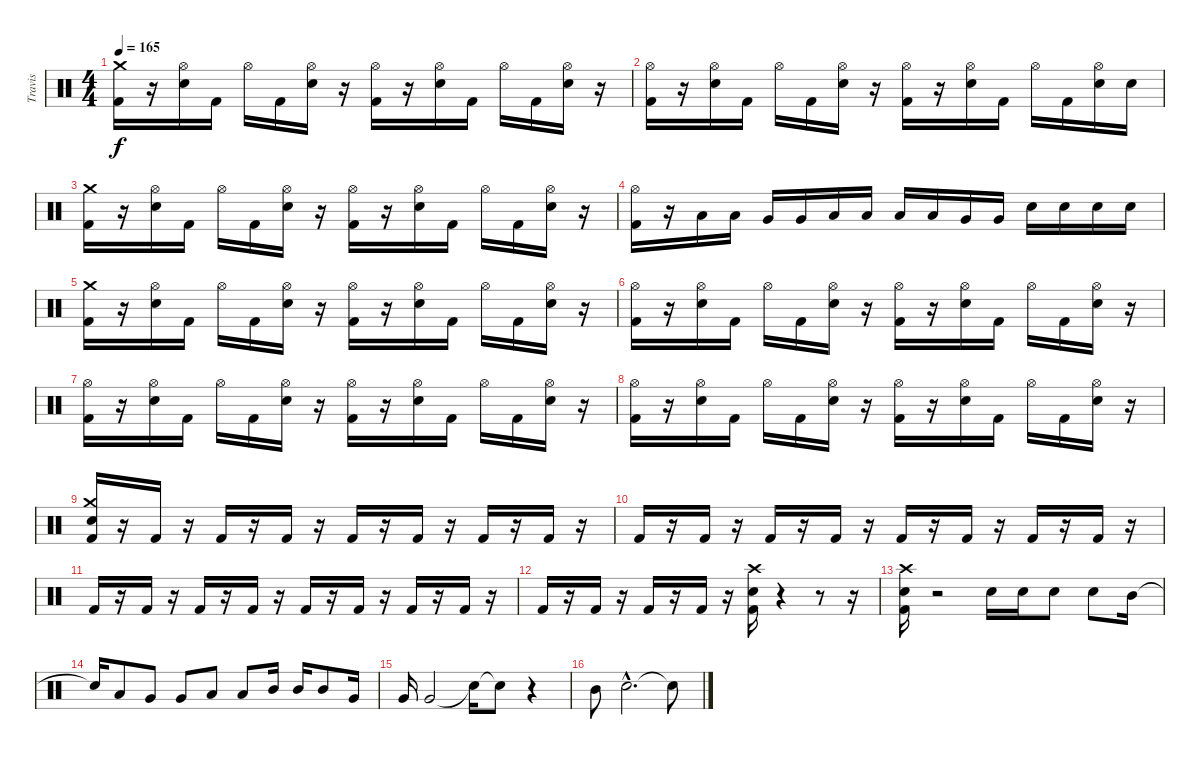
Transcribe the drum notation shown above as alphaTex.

\track ("Travis" "Travis") {instrument percussion}
\staff {score}
\articulation defaults
\ts (4 4)
\tempo 165
\clef neutral
\ks c
("Kick (hit) 2" "Crash medium (hit)").16{dy f} r.16 ("Electric Snare (hit)" "Hi-Hat (open)").16 "Kick (hit) 2".16 "Hi-Hat (open)".16 "Kick (hit) 2".16 ("Electric Snare (hit)" "Hi-Hat (open)").16 r.16 ("Kick (hit) 2" "Hi-Hat (open)").16 r.16 ("Electric Snare (hit)" "Hi-Hat (open)").16 "Kick (hit) 2".16 "Hi-Hat (open)".16 "Kick (hit) 2".16 ("Electric Snare (hit)" "Hi-Hat (open)").16 r.16 |
("Kick (hit) 2" "Hi-Hat (open)").16 r.16 ("Electric Snare (hit)" "Hi-Hat (open)").16 "Kick (hit) 2".16 "Hi-Hat (open)".16 "Kick (hit) 2".16 ("Electric Snare (hit)" "Hi-Hat (open)").16 r.16 ("Kick (hit) 2" "Hi-Hat (open)").16 r.16 ("Electric Snare (hit)" "Hi-Hat (open)").16 "Kick (hit) 2".16 "Hi-Hat (open)".16 "Kick (hit) 2".16 ("Electric Snare (hit)" "Hi-Hat (open)").16 "Electric Snare (hit)".16 |
("Kick (hit) 2" "Crash medium (hit)").16 r.16 ("Electric Snare (hit)" "Hi-Hat (open)").16 "Kick (hit) 2".16 "Hi-Hat (open)".16 "Kick (hit) 2".16 ("Electric Snare (hit)" "Hi-Hat (open)").16 r.16 ("Kick (hit) 2" "Hi-Hat (open)").16 r.16 ("Electric Snare (hit)" "Hi-Hat (open)").16 "Kick (hit) 2".16 "Hi-Hat (open)".16 "Kick (hit) 2".16 ("Electric Snare (hit)" "Hi-Hat (open)").16 r.16 |
("Kick (hit) 2" "Hi-Hat (open)").16 r.16 "Low Tom (hit)".16 "Low Tom (hit)".16 "Very Low Tom (hit)".16 "Very Low Tom (hit)".16 "Low Floor Tom (hit)".16 "Low Floor Tom (hit)".16 "Low Tom (hit)".16 "Low Tom (hit)".16 "Very Low Tom (hit)".16 "Very Low Tom (hit)".16 "Electric Snare (hit)".16 "Electric Snare (hit)".16 "Electric Snare (hit)".16 "Electric Snare (hit)".16 |
("Kick (hit) 2" "Crash medium (hit)").16 r.16 ("Electric Snare (hit)" "Hi-Hat (open)").16 "Kick (hit) 2".16 "Hi-Hat (open)".16 "Kick (hit) 2".16 ("Electric Snare (hit)" "Hi-Hat (open)").16 r.16 ("Kick (hit) 2" "Hi-Hat (open)").16 r.16 ("Electric Snare (hit)" "Hi-Hat (open)").16 "Kick (hit) 2".16 "Hi-Hat (open)".16 "Kick (hit) 2".16 ("Electric Snare (hit)" "Hi-Hat (open)").16 r.16 |
("Kick (hit) 2" "Hi-Hat (open)").16 r.16 ("Electric Snare (hit)" "Hi-Hat (open)").16 "Kick (hit) 2".16 "Hi-Hat (open)".16 "Kick (hit) 2".16 ("Electric Snare (hit)" "Hi-Hat (open)").16 r.16 ("Kick (hit) 2" "Hi-Hat (open)").16 r.16 ("Electric Snare (hit)" "Hi-Hat (open)").16 "Kick (hit) 2".16 "Hi-Hat (open)".16 "Kick (hit) 2".16 ("Electric Snare (hit)" "Hi-Hat (open)").16 r.16 |
("Kick (hit) 2" "Hi-Hat (open)").16 r.16 ("Electric Snare (hit)" "Hi-Hat (open)").16 "Kick (hit) 2".16 "Hi-Hat (open)".16 "Kick (hit) 2".16 ("Electric Snare (hit)" "Hi-Hat (open)").16 r.16 ("Kick (hit) 2" "Hi-Hat (open)").16 r.16 ("Electric Snare (hit)" "Hi-Hat (open)").16 "Kick (hit) 2".16 "Hi-Hat (open)".16 "Kick (hit) 2".16 ("Electric Snare (hit)" "Hi-Hat (open)").16 r.16 |
("Kick (hit) 2" "Hi-Hat (open)").16 r.16 ("Electric Snare (hit)" "Hi-Hat (open)").16 "Kick (hit) 2".16 "Hi-Hat (open)".16 "Kick (hit) 2".16 ("Electric Snare (hit)" "Hi-Hat (open)").16 r.16 ("Hi-Hat (open)" "Kick (hit) 2").16 r.16 ("Electric Snare (hit)" "Hi-Hat (open)").16 "Kick (hit) 2".16 "Hi-Hat (open)".16 "Kick (hit) 2".16 ("Electric Snare (hit)" "Hi-Hat (open)").16 r.16 |
("Electric Snare (hit)" "Kick (hit) 2" "Crash medium (hit)").16 r.16 "Kick (hit) 2".16 r.16 "Kick (hit) 2".16 r.16 "Kick (hit) 2".16 r.16 "Kick (hit) 2".16 r.16 "Kick (hit) 2".16 r.16 "Kick (hit) 2".16 r.16 "Kick (hit) 2".16 r.16 |
"Kick (hit) 2".16 r.16 "Kick (hit) 2".16 r.16 "Kick (hit) 2".16 r.16 "Kick (hit) 2".16 r.16 "Kick (hit) 2".16 r.16 "Kick (hit) 2".16 r.16 "Kick (hit) 2".16 r.16 "Kick (hit) 2".16 r.16 |
"Kick (hit) 2".16 r.16 "Kick (hit) 2".16 r.16 "Kick (hit) 2".16 r.16 "Kick (hit) 2".16 r.16 "Kick (hit) 2".16 r.16 "Kick (hit) 2".16 r.16 "Kick (hit) 2".16 r.16 "Kick (hit) 2".16 r.16 |
"Kick (hit) 2".16 r.16 "Kick (hit) 2".16 r.16 "Kick (hit) 2".16 r.16 "Kick (hit) 2".16 r.16 ("Kick (hit) 2" "Electric Snare (hit)" "Crash high (hit)").16 r.4 r.8 r.16 |
("Kick (hit) 2" "Electric Snare (hit)" "Crash high (hit)").16 r.2 "Electric Snare (hit)".16 "Electric Snare (hit)".16 "Electric Snare (hit)".8 "Electric Snare (hit)".8 "Mid Tom (hit)".16 |
"Snare (hit)"{t}.16 "Low Tom (hit)".8 "Very Low Tom (hit)".8 "Very Low Tom (hit)".8 "Low Floor Tom (hit)".8 "Low Floor Tom (hit)".8 "Mid Tom (hit)".16 "Mid Tom (hit)".16 "Mid Tom (hit)".8 "Very Low Tom (hit)".16 |
"Very Low Tom (hit)".16 "Very Low Tom (hit)".2 "Snare (hit)"{t}.16 "Snare (hit)"{t}.8 r.4 |
"Mid Tom (hit)".8 "Electric Snare (hit)"{hac}.2{d} "Snare (hit)"{t}.8
